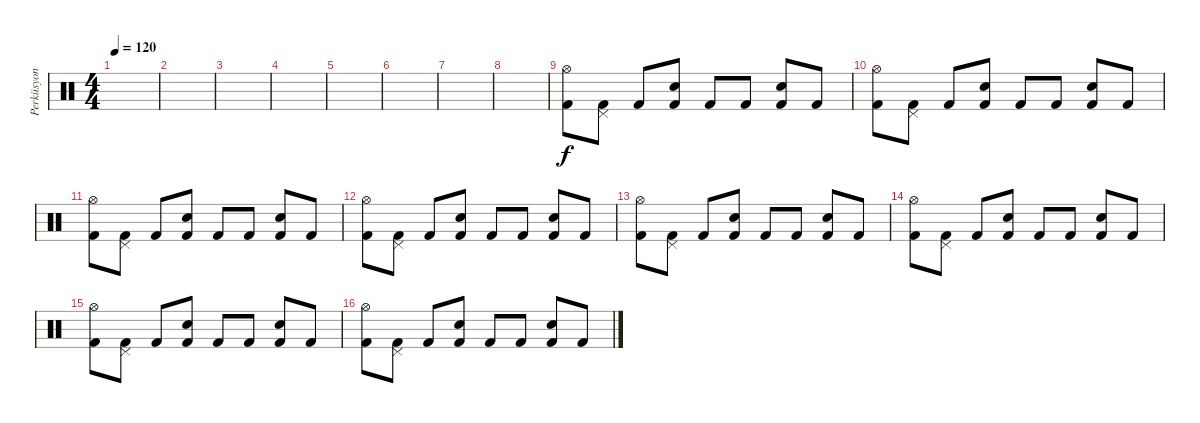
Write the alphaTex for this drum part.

\track ("Perküsyon" "Perküsyon") {instrument percussion}
\staff {score}
\articulation defaults
\ts (4 4)
\tempo 120
\clef neutral
\ks c
|
|
|
|
|
|
|
|
("Kick (hit) 2" "Hi-Hat (open)").8 ("Kick (hit) 2" "Pedal Hi-Hat (hit)").8 "Kick (hit) 2".8 ("Snare (hit) 2" "Kick (hit) 2").8 "Kick (hit) 2".8 "Kick (hit) 2".8 ("Electric Snare (hit)" "Kick (hit) 2").8 "Kick (hit) 2".8 |
("Kick (hit) 2" "Hi-Hat (open)").8 ("Kick (hit) 2" "Pedal Hi-Hat (hit)").8 "Kick (hit) 2".8 ("Snare (hit) 2" "Kick (hit) 2").8 "Kick (hit) 2".8 "Kick (hit) 2".8 ("Electric Snare (hit)" "Kick (hit) 2").8 "Kick (hit) 2".8 |
("Kick (hit) 2" "Hi-Hat (open)").8 ("Kick (hit) 2" "Pedal Hi-Hat (hit)").8 "Kick (hit) 2".8 ("Snare (hit) 2" "Kick (hit) 2").8 "Kick (hit) 2".8 "Kick (hit) 2".8 ("Electric Snare (hit)" "Kick (hit) 2").8 "Kick (hit) 2".8 |
("Kick (hit) 2" "Hi-Hat (open)").8 ("Kick (hit) 2" "Pedal Hi-Hat (hit)").8 "Kick (hit) 2".8 ("Snare (hit) 2" "Kick (hit) 2").8 "Kick (hit) 2".8 "Kick (hit) 2".8 ("Electric Snare (hit)" "Kick (hit) 2").8 "Kick (hit) 2".8 |
("Kick (hit) 2" "Hi-Hat (open)").8 ("Kick (hit) 2" "Pedal Hi-Hat (hit)").8 "Kick (hit) 2".8 ("Snare (hit) 2" "Kick (hit) 2").8 "Kick (hit) 2".8 "Kick (hit) 2".8 ("Electric Snare (hit)" "Kick (hit) 2").8 "Kick (hit) 2".8 |
("Kick (hit) 2" "Hi-Hat (open)").8 ("Kick (hit) 2" "Pedal Hi-Hat (hit)").8 "Kick (hit) 2".8 ("Snare (hit) 2" "Kick (hit) 2").8 "Kick (hit) 2".8 "Kick (hit) 2".8 ("Electric Snare (hit)" "Kick (hit) 2").8 "Kick (hit) 2".8 |
("Kick (hit) 2" "Hi-Hat (open)").8 ("Kick (hit) 2" "Pedal Hi-Hat (hit)").8 "Kick (hit) 2".8 ("Snare (hit) 2" "Kick (hit) 2").8 "Kick (hit) 2".8 "Kick (hit) 2".8 ("Electric Snare (hit)" "Kick (hit) 2").8 "Kick (hit) 2".8 |
("Kick (hit) 2" "Hi-Hat (open)").8 ("Kick (hit) 2" "Pedal Hi-Hat (hit)").8 "Kick (hit) 2".8 ("Snare (hit) 2" "Kick (hit) 2").8 "Kick (hit) 2".8 "Kick (hit) 2".8 ("Electric Snare (hit)" "Kick (hit) 2").8 "Kick (hit) 2".8
